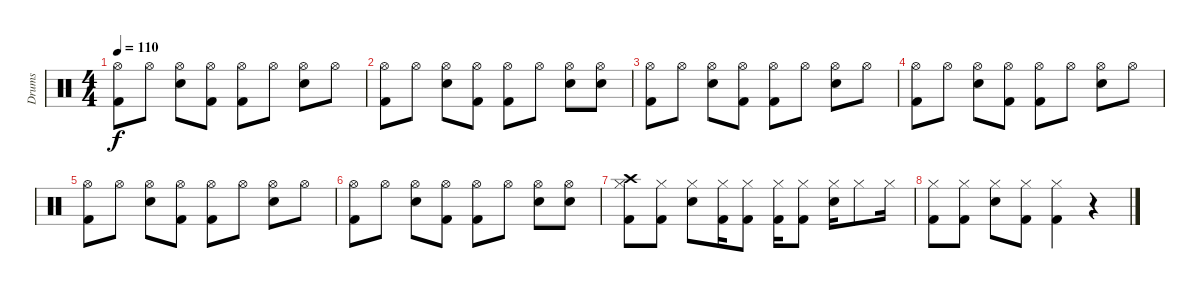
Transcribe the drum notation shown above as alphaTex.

\track ("Drums" "Drums") {instrument percussion}
\staff {score}
\articulation defaults
\ts (4 4)
\tempo 110
\clef neutral
\ks c
("Hi-Hat (open)" "Kick (hit) 2").8{dy f} "Hi-Hat (open)".8 ("Hi-Hat (open)" "Electric Snare (hit)").8 ("Hi-Hat (open)" "Kick (hit) 2").8 ("Hi-Hat (open)" "Kick (hit) 2").8 "Hi-Hat (open)".8 ("Hi-Hat (open)" "Electric Snare (hit)").8 "Hi-Hat (open)".8 |
("Hi-Hat (open)" "Kick (hit) 2").8 "Hi-Hat (open)".8 ("Hi-Hat (open)" "Electric Snare (hit)").8 ("Hi-Hat (open)" "Kick (hit) 2").8 ("Hi-Hat (open)" "Kick (hit) 2").8 "Hi-Hat (open)".8 ("Hi-Hat (open)" "Electric Snare (hit)").8 ("Hi-Hat (open)" "Electric Snare (hit)").8 |
("Hi-Hat (open)" "Kick (hit) 2").8 "Hi-Hat (open)".8 ("Hi-Hat (open)" "Electric Snare (hit)").8 ("Hi-Hat (open)" "Kick (hit) 2").8 ("Hi-Hat (open)" "Kick (hit) 2").8 "Hi-Hat (open)".8 ("Hi-Hat (open)" "Electric Snare (hit)").8 "Hi-Hat (open)".8 |
("Hi-Hat (open)" "Kick (hit) 2").8 "Hi-Hat (open)".8 ("Hi-Hat (open)" "Electric Snare (hit)").8 ("Hi-Hat (open)" "Kick (hit) 2").8 ("Hi-Hat (open)" "Kick (hit) 2").8 "Hi-Hat (open)".8 ("Hi-Hat (open)" "Electric Snare (hit)").8 "Hi-Hat (open)".8 |
("Hi-Hat (open)" "Kick (hit) 2").8 "Hi-Hat (open)".8 ("Hi-Hat (open)" "Electric Snare (hit)").8 ("Hi-Hat (open)" "Kick (hit) 2").8 ("Hi-Hat (open)" "Kick (hit) 2").8 "Hi-Hat (open)".8 ("Hi-Hat (open)" "Electric Snare (hit)").8 "Hi-Hat (open)".8 |
("Hi-Hat (open)" "Kick (hit) 2").8 "Hi-Hat (open)".8 ("Hi-Hat (open)" "Electric Snare (hit)").8 ("Hi-Hat (open)" "Kick (hit) 2").8 ("Hi-Hat (open)" "Kick (hit) 2").8 "Hi-Hat (open)".8 ("Hi-Hat (open)" "Electric Snare (hit)").8 ("Hi-Hat (open)" "Electric Snare (hit)").8 |
("Crash high (hit)" "Hi-Hat (closed)" "Kick (hit) 2").8 ("Hi-Hat (closed)" "Kick (hit) 2").8 ("Hi-Hat (closed)" "Electric Snare (hit)").8 ("Hi-Hat (closed)" "Kick (hit) 2").16 ("Hi-Hat (closed)" "Kick (hit) 2").8 ("Hi-Hat (closed)" "Kick (hit) 2").16 ("Hi-Hat (closed)" "Kick (hit) 2").8 ("Hi-Hat (closed)" "Electric Snare (hit)").16 "Hi-Hat (closed)".8 "Hi-Hat (closed)".16 |
("Hi-Hat (closed)" "Kick (hit) 2").8 ("Hi-Hat (closed)" "Kick (hit) 2").8 ("Hi-Hat (closed)" "Electric Snare (hit)").8 ("Hi-Hat (closed)" "Kick (hit) 2").8 ("Hi-Hat (closed)" "Kick (hit) 2").4 r.4
